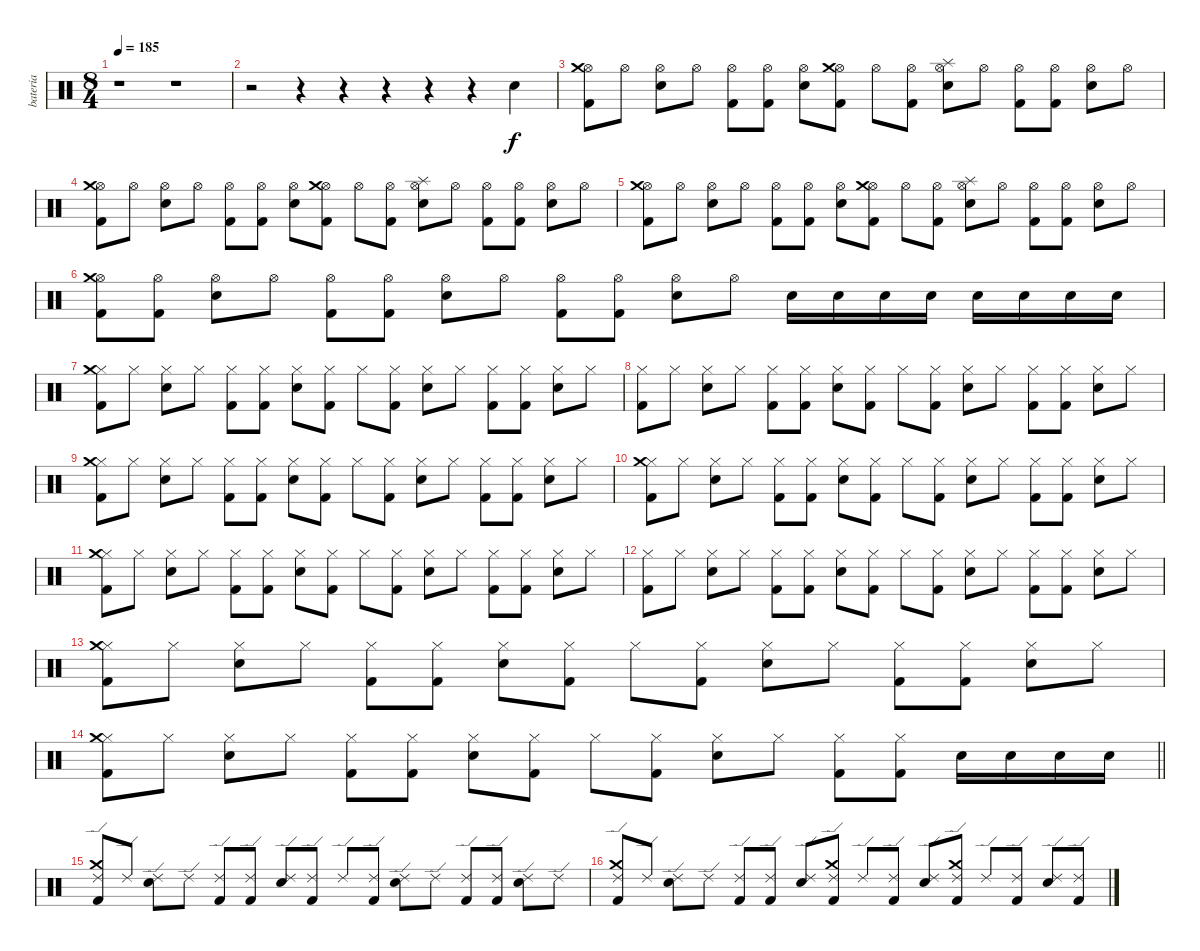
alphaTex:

\track ("bateria" "bateria") {instrument percussion}
\staff {score}
\articulation defaults
\ts (8 4)
\tempo 185
\clef neutral
\ks c
r.1{dy f} r.1 |
r.2 r.4 r.4 r.4 r.4 r.4 "Electric Snare (hit)".4 |
("Hi-Hat (open)" "Kick (hit) 2" "Crash medium (hit)").8 "Hi-Hat (open)".8 ("Hi-Hat (open)" "Electric Snare (hit)").8 "Hi-Hat (open)".8 ("Hi-Hat (open)" "Kick (hit) 2").8 ("Hi-Hat (open)" "Kick (hit) 2").8 ("Hi-Hat (open)" "Electric Snare (hit)").8 ("Hi-Hat (open)" "Kick (hit) 2" "Crash medium (hit)").8 "Hi-Hat (open)".8 ("Hi-Hat (open)" "Kick (hit) 2").8 ("Hi-Hat (open)" "Electric Snare (hit)" "Splash (hit)").8 "Hi-Hat (open)".8 ("Hi-Hat (open)" "Kick (hit) 2").8 ("Hi-Hat (open)" "Kick (hit) 2").8 ("Hi-Hat (open)" "Electric Snare (hit)").8 "Hi-Hat (open)".8 |
("Hi-Hat (open)" "Kick (hit) 2" "Crash medium (hit)").8 "Hi-Hat (open)".8 ("Hi-Hat (open)" "Electric Snare (hit)").8 "Hi-Hat (open)".8 ("Hi-Hat (open)" "Kick (hit) 2").8 ("Hi-Hat (open)" "Kick (hit) 2").8 ("Hi-Hat (open)" "Electric Snare (hit)").8 ("Hi-Hat (open)" "Kick (hit) 2" "Crash medium (hit)").8 "Hi-Hat (open)".8 ("Hi-Hat (open)" "Kick (hit) 2").8 ("Hi-Hat (open)" "Electric Snare (hit)" "Splash (hit)").8 "Hi-Hat (open)".8 ("Hi-Hat (open)" "Kick (hit) 2").8 ("Hi-Hat (open)" "Kick (hit) 2").8 ("Hi-Hat (open)" "Electric Snare (hit)").8 "Hi-Hat (open)".8 |
("Hi-Hat (open)" "Kick (hit) 2" "Crash medium (hit)").8 "Hi-Hat (open)".8 ("Hi-Hat (open)" "Electric Snare (hit)").8 "Hi-Hat (open)".8 ("Hi-Hat (open)" "Kick (hit) 2").8 ("Hi-Hat (open)" "Kick (hit) 2").8 ("Hi-Hat (open)" "Electric Snare (hit)").8 ("Hi-Hat (open)" "Kick (hit) 2" "Crash medium (hit)").8 "Hi-Hat (open)".8 ("Hi-Hat (open)" "Kick (hit) 2").8 ("Hi-Hat (open)" "Electric Snare (hit)" "Splash (hit)").8 "Hi-Hat (open)".8 ("Hi-Hat (open)" "Kick (hit) 2").8 ("Hi-Hat (open)" "Kick (hit) 2").8 ("Hi-Hat (open)" "Electric Snare (hit)").8 "Hi-Hat (open)".8 |
("Hi-Hat (open)" "Kick (hit) 2" "Crash medium (hit)").8 ("Hi-Hat (open)" "Kick (hit) 2").8 ("Hi-Hat (open)" "Electric Snare (hit)").8 "Hi-Hat (open)".8 ("Hi-Hat (open)" "Kick (hit) 2").8 ("Hi-Hat (open)" "Kick (hit) 2").8 ("Hi-Hat (open)" "Electric Snare (hit)").8 "Hi-Hat (open)".8 ("Hi-Hat (open)" "Kick (hit) 2").8 ("Hi-Hat (open)" "Kick (hit) 2").8 ("Hi-Hat (open)" "Electric Snare (hit)").8 "Hi-Hat (open)".8 "Electric Snare (hit)".16 "Electric Snare (hit)".16 "Electric Snare (hit)".16 "Electric Snare (hit)".16 "Electric Snare (hit)".16 "Electric Snare (hit)".16 "Electric Snare (hit)".16 "Electric Snare (hit)".16 |
("Hi-Hat (closed)" "Kick (hit) 2" "Crash medium (hit)").8 "Hi-Hat (closed)".8 ("Hi-Hat (closed)" "Electric Snare (hit)").8 "Hi-Hat (closed)".8 ("Hi-Hat (closed)" "Kick (hit) 2").8 ("Hi-Hat (closed)" "Kick (hit) 2").8 ("Hi-Hat (closed)" "Electric Snare (hit)").8 ("Hi-Hat (closed)" "Kick (hit) 2").8 "Hi-Hat (closed)".8 ("Hi-Hat (closed)" "Kick (hit) 2").8 ("Hi-Hat (closed)" "Electric Snare (hit)").8 "Hi-Hat (closed)".8 ("Hi-Hat (closed)" "Kick (hit) 2").8 ("Hi-Hat (closed)" "Kick (hit) 2").8 ("Hi-Hat (closed)" "Electric Snare (hit)").8 "Hi-Hat (closed)".8 |
("Hi-Hat (closed)" "Kick (hit) 2").8 "Hi-Hat (closed)".8 ("Hi-Hat (closed)" "Electric Snare (hit)").8 "Hi-Hat (closed)".8 ("Hi-Hat (closed)" "Kick (hit) 2").8 ("Hi-Hat (closed)" "Kick (hit) 2").8 ("Hi-Hat (closed)" "Electric Snare (hit)").8 ("Hi-Hat (closed)" "Kick (hit) 2").8 "Hi-Hat (closed)".8 ("Hi-Hat (closed)" "Kick (hit) 2").8 ("Hi-Hat (closed)" "Electric Snare (hit)").8 "Hi-Hat (closed)".8 ("Hi-Hat (closed)" "Kick (hit) 2").8 ("Hi-Hat (closed)" "Kick (hit) 2").8 ("Hi-Hat (closed)" "Electric Snare (hit)").8 "Hi-Hat (closed)".8 |
("Hi-Hat (closed)" "Kick (hit) 2" "Crash medium (hit)").8 "Hi-Hat (closed)".8 ("Hi-Hat (closed)" "Electric Snare (hit)").8 "Hi-Hat (closed)".8 ("Hi-Hat (closed)" "Kick (hit) 2").8 ("Hi-Hat (closed)" "Kick (hit) 2").8 ("Hi-Hat (closed)" "Electric Snare (hit)").8 ("Hi-Hat (closed)" "Kick (hit) 2").8 "Hi-Hat (closed)".8 ("Hi-Hat (closed)" "Kick (hit) 2").8 ("Hi-Hat (closed)" "Electric Snare (hit)").8 "Hi-Hat (closed)".8 ("Hi-Hat (closed)" "Kick (hit) 2").8 ("Hi-Hat (closed)" "Kick (hit) 2").8 ("Hi-Hat (closed)" "Electric Snare (hit)").8 "Hi-Hat (closed)".8 |
("Hi-Hat (closed)" "Kick (hit) 2" "Crash medium (hit)").8 "Hi-Hat (closed)".8 ("Hi-Hat (closed)" "Electric Snare (hit)").8 "Hi-Hat (closed)".8 ("Hi-Hat (closed)" "Kick (hit) 2").8 ("Hi-Hat (closed)" "Kick (hit) 2").8 ("Hi-Hat (closed)" "Electric Snare (hit)").8 ("Hi-Hat (closed)" "Kick (hit) 2").8 "Hi-Hat (closed)".8 ("Hi-Hat (closed)" "Kick (hit) 2").8 ("Hi-Hat (closed)" "Electric Snare (hit)").8 "Hi-Hat (closed)".8 ("Hi-Hat (closed)" "Kick (hit) 2").8 ("Hi-Hat (closed)" "Kick (hit) 2").8 ("Hi-Hat (closed)" "Electric Snare (hit)").8 "Hi-Hat (closed)".8 |
("Hi-Hat (closed)" "Kick (hit) 2" "Crash medium (hit)").8 "Hi-Hat (closed)".8 ("Hi-Hat (closed)" "Electric Snare (hit)").8 "Hi-Hat (closed)".8 ("Hi-Hat (closed)" "Kick (hit) 2").8 ("Hi-Hat (closed)" "Kick (hit) 2").8 ("Hi-Hat (closed)" "Electric Snare (hit)").8 ("Hi-Hat (closed)" "Kick (hit) 2").8 "Hi-Hat (closed)".8 ("Hi-Hat (closed)" "Kick (hit) 2").8 ("Hi-Hat (closed)" "Electric Snare (hit)").8 "Hi-Hat (closed)".8 ("Hi-Hat (closed)" "Kick (hit) 2").8 ("Hi-Hat (closed)" "Kick (hit) 2").8 ("Hi-Hat (closed)" "Electric Snare (hit)").8 "Hi-Hat (closed)".8 |
("Hi-Hat (closed)" "Kick (hit) 2").8 "Hi-Hat (closed)".8 ("Hi-Hat (closed)" "Electric Snare (hit)").8 "Hi-Hat (closed)".8 ("Hi-Hat (closed)" "Kick (hit) 2").8 ("Hi-Hat (closed)" "Kick (hit) 2").8 ("Hi-Hat (closed)" "Electric Snare (hit)").8 ("Hi-Hat (closed)" "Kick (hit) 2").8 "Hi-Hat (closed)".8 ("Hi-Hat (closed)" "Kick (hit) 2").8 ("Hi-Hat (closed)" "Electric Snare (hit)").8 "Hi-Hat (closed)".8 ("Hi-Hat (closed)" "Kick (hit) 2").8 ("Hi-Hat (closed)" "Kick (hit) 2").8 ("Hi-Hat (closed)" "Electric Snare (hit)").8 "Hi-Hat (closed)".8 |
("Hi-Hat (closed)" "Kick (hit) 2" "Crash medium (hit)").8 "Hi-Hat (closed)".8 ("Hi-Hat (closed)" "Electric Snare (hit)").8 "Hi-Hat (closed)".8 ("Hi-Hat (closed)" "Kick (hit) 2").8 ("Hi-Hat (closed)" "Kick (hit) 2").8 ("Hi-Hat (closed)" "Electric Snare (hit)").8 ("Hi-Hat (closed)" "Kick (hit) 2").8 "Hi-Hat (closed)".8 ("Hi-Hat (closed)" "Kick (hit) 2").8 ("Hi-Hat (closed)" "Electric Snare (hit)").8 "Hi-Hat (closed)".8 ("Hi-Hat (closed)" "Kick (hit) 2").8 ("Hi-Hat (closed)" "Kick (hit) 2").8 ("Hi-Hat (closed)" "Electric Snare (hit)").8 "Hi-Hat (closed)".8 |
\barLineRight lightlight
("Hi-Hat (closed)" "Kick (hit) 2" "Crash medium (hit)").8 "Hi-Hat (closed)".8 ("Hi-Hat (closed)" "Electric Snare (hit)").8 "Hi-Hat (closed)".8 ("Hi-Hat (closed)" "Kick (hit) 2").8 ("Hi-Hat (closed)" "Kick (hit) 2").8 ("Hi-Hat (closed)" "Electric Snare (hit)").8 ("Hi-Hat (closed)" "Kick (hit) 2").8 "Hi-Hat (closed)".8 ("Hi-Hat (closed)" "Kick (hit) 2").8 ("Hi-Hat (closed)" "Electric Snare (hit)").8 "Hi-Hat (closed)".8 ("Hi-Hat (closed)" "Kick (hit) 2").8 ("Hi-Hat (closed)" "Kick (hit) 2").8 "Electric Snare (hit)".16 "Electric Snare (hit)".16 "Electric Snare (hit)".16 "Electric Snare (hit)".16 |
("Ride (edge) 2" "Kick (hit) 2" "Crash medium (hit)").8 "Ride (edge) 2".8 ("Ride (edge) 2" "Electric Snare (hit)").8 "Ride (edge) 2".8 ("Ride (edge) 2" "Kick (hit) 2").8 ("Ride (edge) 2" "Kick (hit) 2").8 ("Ride (edge) 2" "Electric Snare (hit)").8 ("Ride (edge) 2" "Kick (hit) 2").8 "Ride (edge) 2".8 ("Ride (edge) 2" "Kick (hit) 2").8 ("Ride (edge) 2" "Electric Snare (hit)").8 "Ride (edge) 2".8 ("Ride (edge) 2" "Kick (hit) 2").8 ("Ride (edge) 2" "Kick (hit) 2").8 ("Ride (edge) 2" "Electric Snare (hit)").8 "Ride (edge) 2".8 |
("Ride (edge) 2" "Kick (hit) 2" "Crash medium (hit)").8 "Ride (edge) 2".8 ("Ride (edge) 2" "Electric Snare (hit)").8 "Ride (edge) 2".8 ("Ride (edge) 2" "Kick (hit) 2").8 ("Ride (edge) 2" "Kick (hit) 2").8 ("Ride (edge) 2" "Electric Snare (hit)").8 ("Ride (edge) 2" "Kick (hit) 2" "Crash medium (hit)").8 "Ride (edge) 2".8 ("Ride (edge) 2" "Kick (hit) 2").8 ("Ride (edge) 2" "Electric Snare (hit)").8 ("Ride (edge) 2" "Kick (hit) 2" "Crash medium (hit)").8 "Ride (edge) 2".8 ("Ride (edge) 2" "Kick (hit) 2").8 ("Ride (edge) 2" "Electric Snare (hit)").8 ("Ride (edge) 2" "Kick (hit) 2").8
